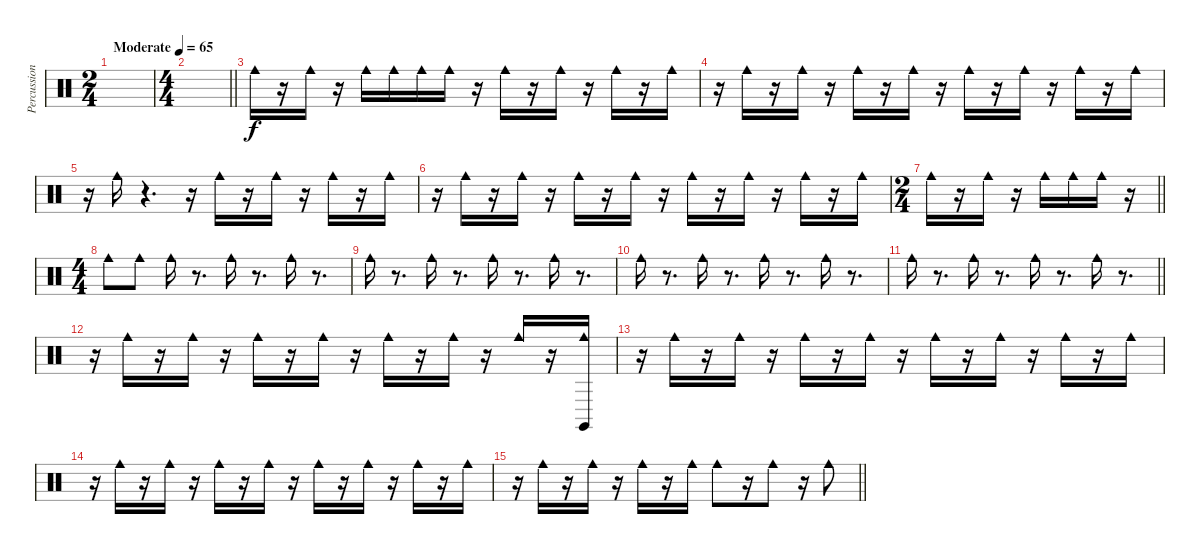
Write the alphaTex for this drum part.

\track ("Percussion 2" "Percussion") {instrument percussion}
\staff {score}
\articulation defaults
\ts (2 4)
\tempo (65 "Moderate")
\clef neutral
\ks c
|
\ts (4 4)
\barLineRight lightlight
|
"Cowbell medium (hit)".16 r.16 "Cowbell medium (hit)".16 r.16 "Cowbell medium (hit)".16 "Cowbell medium (hit)".16 "Cowbell medium (hit)".16 "Cowbell medium (hit)".16 r.16 "Cowbell medium (hit)".16 r.16 "Cowbell medium (hit)".16 r.16 "Cowbell medium (hit)".16 r.16 "Cowbell medium (hit)".16 |
r.16 "Cowbell medium (hit)".16 r.16 "Cowbell medium (hit)".16 r.16 "Cowbell medium (hit)".16 r.16 "Cowbell medium (hit)".16 r.16 "Cowbell medium (hit)".16 r.16 "Cowbell medium (hit)".16 r.16 "Cowbell medium (hit)".16 r.16 "Cowbell medium (hit)".16 |
r.16 "Cowbell medium (hit)".16 r.4{d} r.16 "Cowbell medium (hit)".16 r.16 "Cowbell medium (hit)".16 r.16 "Cowbell medium (hit)".16 r.16 "Cowbell medium (hit)".16 |
r.16 "Cowbell medium (hit)".16 r.16 "Cowbell medium (hit)".16 r.16 "Cowbell medium (hit)".16 r.16 "Cowbell medium (hit)".16 r.16 "Cowbell medium (hit)".16 r.16 "Cowbell medium (hit)".16 r.16 "Cowbell medium (hit)".16 r.16 "Cowbell medium (hit)".16 |
\ts (2 4)
\barLineRight lightlight "Cowbell medium (hit)".16
r.16 "Cowbell medium (hit)".16 r.16 "Cowbell medium (hit)".16 "Cowbell medium (hit)".16 "Cowbell medium (hit)".16 r.16 |
\ts (4 4)
"Cowbell medium (hit)".8 "Cowbell medium (hit)".8 "Cowbell medium (hit)".16 r.8{d} "Cowbell medium (hit)".16 r.8{d} "Cowbell medium (hit)".16 r.8{d} |
"Cowbell medium (hit)".16 r.8{d} "Cowbell medium (hit)".16 r.8{d} "Cowbell medium (hit)".16 r.8{d} "Cowbell medium (hit)".16 r.8{d} |
"Cowbell medium (hit)".16 r.8{d} "Cowbell medium (hit)".16 r.8{d} "Cowbell medium (hit)".16 r.8{d} "Cowbell medium (hit)".16 r.8{d} |
\barLineRight lightlight "Cowbell medium (hit)".16
r.8{d} "Cowbell medium (hit)".16 r.8{d} "Cowbell medium (hit)".16 r.8{d} "Cowbell medium (hit)".16 r.8{d} |
r.16 "Cowbell medium (hit)".16 r.16 "Cowbell medium (hit)".16 r.16 "Cowbell medium (hit)".16 r.16 "Cowbell medium (hit)".16 r.16 "Cowbell medium (hit)".16 r.16 "Cowbell medium (hit)".16 r.16 "Cowbell medium (hit)".16 r.16 ("Claves (hit)" "Cowbell medium (hit)").16 |
r.16 "Cowbell medium (hit)".16 r.16 "Cowbell medium (hit)".16 r.16 "Cowbell medium (hit)".16 r.16 "Cowbell medium (hit)".16 r.16 "Cowbell medium (hit)".16 r.16 "Cowbell medium (hit)".16 r.16 "Cowbell medium (hit)".16 r.16 "Cowbell medium (hit)".16 |
r.16 "Cowbell medium (hit)".16 r.16 "Cowbell medium (hit)".16 r.16 "Cowbell medium (hit)".16 r.16 "Cowbell medium (hit)".16 r.16 "Cowbell medium (hit)".16 r.16 "Cowbell medium (hit)".16 r.16 "Cowbell medium (hit)".16 r.16 "Cowbell medium (hit)".16 |
\barLineRight lightlight
r.16 "Cowbell medium (hit)".16 r.16 "Cowbell medium (hit)".16 r.16 "Cowbell medium (hit)".16 r.16 "Cowbell medium (hit)".16 "Cowbell medium (hit)".8 r.16 "Cowbell medium (hit)".8 r.16 "Cowbell medium (hit)".8
